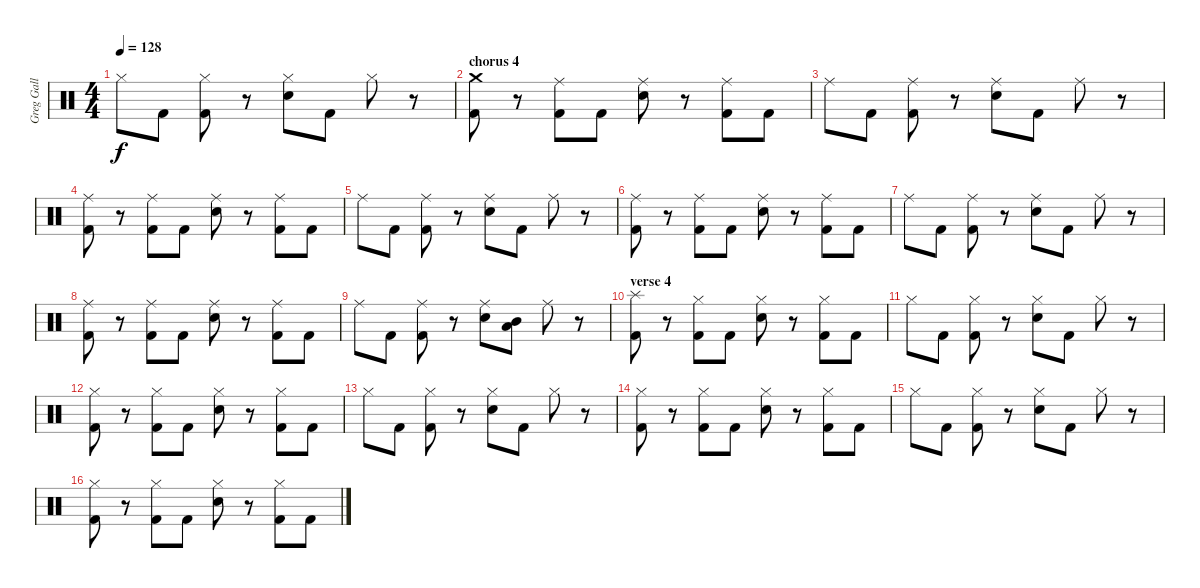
\track ("Greg Gall" "Greg Gall") {instrument percussion}
\staff {score}
\articulation defaults
\ts (4 4)
\tempo 128
\clef neutral
\ks c "Hi-Hat (closed)".8{dy f} "Kick (hit) 2".8
("Hi-Hat (closed)" "Kick (hit) 2").8 r.8 ("Hi-Hat (closed)" "Electric Snare (hit)").8 "Kick (hit) 2".8 "Hi-Hat (closed)".8 r.8 |
\section ("" "chorus 4")
("Crash medium (hit)" "Kick (hit) 2").8 r.8 ("Ride (middle)" "Kick (hit) 2").8 "Kick (hit) 2".8 ("Ride (middle)" "Electric Snare (hit)").8 r.8 ("Ride (middle)" "Kick (hit) 2").8 "Kick (hit) 2".8 |
"Ride (middle)".8 "Kick (hit) 2".8 ("Ride (middle)" "Kick (hit) 2").8 r.8 ("Ride (middle)" "Electric Snare (hit)").8 "Kick (hit) 2".8 "Ride (middle)".8 r.8 |
("Ride (middle)" "Kick (hit) 2").8 r.8 ("Ride (middle)" "Kick (hit) 2").8 "Kick (hit) 2".8 ("Ride (middle)" "Electric Snare (hit)").8 r.8 ("Ride (middle)" "Kick (hit) 2").8 "Kick (hit) 2".8 |
"Ride (middle)".8 "Kick (hit) 2".8 ("Ride (middle)" "Kick (hit) 2").8 r.8 ("Ride (middle)" "Electric Snare (hit)").8 "Kick (hit) 2".8 "Ride (middle)".8 r.8 |
("Ride (middle)" "Kick (hit) 2").8 r.8 ("Ride (middle)" "Kick (hit) 2").8 "Kick (hit) 2".8 ("Ride (middle)" "Electric Snare (hit)").8 r.8 ("Ride (middle)" "Kick (hit) 2").8 "Kick (hit) 2".8 |
"Ride (middle)".8 "Kick (hit) 2".8 ("Ride (middle)" "Kick (hit) 2").8 r.8 ("Ride (middle)" "Electric Snare (hit)").8 "Kick (hit) 2".8 "Ride (middle)".8 r.8 |
("Ride (middle)" "Kick (hit) 2").8 r.8 ("Ride (middle)" "Kick (hit) 2").8 "Kick (hit) 2".8 ("Ride (middle)" "Electric Snare (hit)").8 r.8 ("Ride (middle)" "Kick (hit) 2").8 "Kick (hit) 2".8 |
"Ride (middle)".8 "Kick (hit) 2".8 ("Ride (middle)" "Kick (hit) 2").8 r.8 ("Ride (middle)" "Electric Snare (hit)").8 ("Mid Tom (hit)" "Low Tom (hit)").8 "Ride (middle)".8 r.8 |
\section ("" "verse 4")
("Splash (hit)" "Kick (hit) 2").8 r.8 ("Hi-Hat (closed)" "Kick (hit) 2").8 "Kick (hit) 2".8 ("Hi-Hat (closed)" "Electric Snare (hit)").8 r.8 ("Hi-Hat (closed)" "Kick (hit) 2").8 "Kick (hit) 2".8 |
"Hi-Hat (closed)".8 "Kick (hit) 2".8 ("Hi-Hat (closed)" "Kick (hit) 2").8 r.8 ("Hi-Hat (closed)" "Electric Snare (hit)").8 "Kick (hit) 2".8 "Hi-Hat (closed)".8 r.8 |
("Hi-Hat (closed)" "Kick (hit) 2").8 r.8 ("Hi-Hat (closed)" "Kick (hit) 2").8 "Kick (hit) 2".8 ("Hi-Hat (closed)" "Electric Snare (hit)").8 r.8 ("Hi-Hat (closed)" "Kick (hit) 2").8 "Kick (hit) 2".8 |
"Hi-Hat (closed)".8 "Kick (hit) 2".8 ("Hi-Hat (closed)" "Kick (hit) 2").8 r.8 ("Hi-Hat (closed)" "Electric Snare (hit)").8 "Kick (hit) 2".8 "Hi-Hat (closed)".8 r.8 |
("Hi-Hat (closed)" "Kick (hit) 2").8 r.8 ("Hi-Hat (closed)" "Kick (hit) 2").8 "Kick (hit) 2".8 ("Hi-Hat (closed)" "Electric Snare (hit)").8 r.8 ("Hi-Hat (closed)" "Kick (hit) 2").8 "Kick (hit) 2".8 |
"Hi-Hat (closed)".8 "Kick (hit) 2".8 ("Hi-Hat (closed)" "Kick (hit) 2").8 r.8 ("Hi-Hat (closed)" "Electric Snare (hit)").8 "Kick (hit) 2".8 "Hi-Hat (closed)".8 r.8 |
("Hi-Hat (closed)" "Kick (hit) 2").8 r.8 ("Hi-Hat (closed)" "Kick (hit) 2").8 "Kick (hit) 2".8 ("Hi-Hat (closed)" "Electric Snare (hit)").8 r.8 ("Hi-Hat (closed)" "Kick (hit) 2").8 "Kick (hit) 2".8
